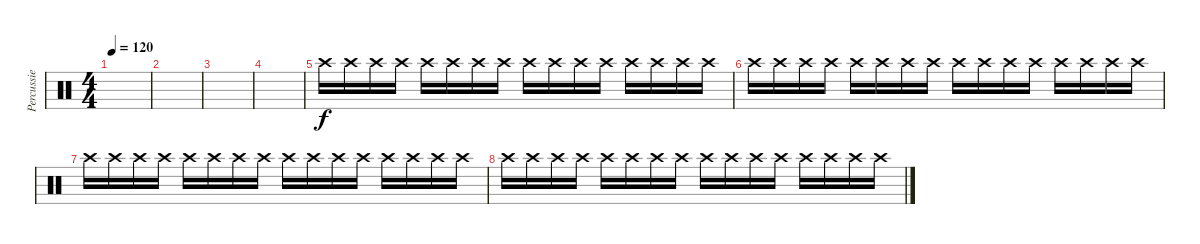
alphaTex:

\track ("Percussie" "Percussie") {instrument percussion}
\staff {score}
\articulation defaults
\ts (4 4)
\tempo 120
\clef neutral
\ks c
|
|
|
|
"Crash high (hit)".16 "Crash high (hit)".16 "Crash high (hit)".16 "Crash high (hit)".16 "Crash high (hit)".16 "Crash high (hit)".16 "Crash high (hit)".16 "Crash high (hit)".16 "Crash high (hit)".16 "Crash high (hit)".16 "Crash high (hit)".16 "Crash high (hit)".16 "Crash high (hit)".16 "Crash high (hit)".16 "Crash high (hit)".16 "Crash high (hit)".16 |
"Crash high (hit)".16 "Crash high (hit)".16 "Crash high (hit)".16 "Crash high (hit)".16 "Crash high (hit)".16 "Crash high (hit)".16 "Crash high (hit)".16 "Crash high (hit)".16 "Crash high (hit)".16 "Crash high (hit)".16 "Crash high (hit)".16 "Crash high (hit)".16 "Crash high (hit)".16 "Crash high (hit)".16 "Crash high (hit)".16 "Crash high (hit)".16 |
"Crash high (hit)".16 "Crash high (hit)".16 "Crash high (hit)".16 "Crash high (hit)".16 "Crash high (hit)".16 "Crash high (hit)".16 "Crash high (hit)".16 "Crash high (hit)".16 "Crash high (hit)".16 "Crash high (hit)".16 "Crash high (hit)".16 "Crash high (hit)".16 "Crash high (hit)".16 "Crash high (hit)".16 "Crash high (hit)".16 "Crash high (hit)".16 |
"Crash high (hit)".16 "Crash high (hit)".16 "Crash high (hit)".16 "Crash high (hit)".16 "Crash high (hit)".16 "Crash high (hit)".16 "Crash high (hit)".16 "Crash high (hit)".16 "Crash high (hit)".16 "Crash high (hit)".16 "Crash high (hit)".16 "Crash high (hit)".16 "Crash high (hit)".16 "Crash high (hit)".16 "Crash high (hit)".16 "Crash high (hit)".16
